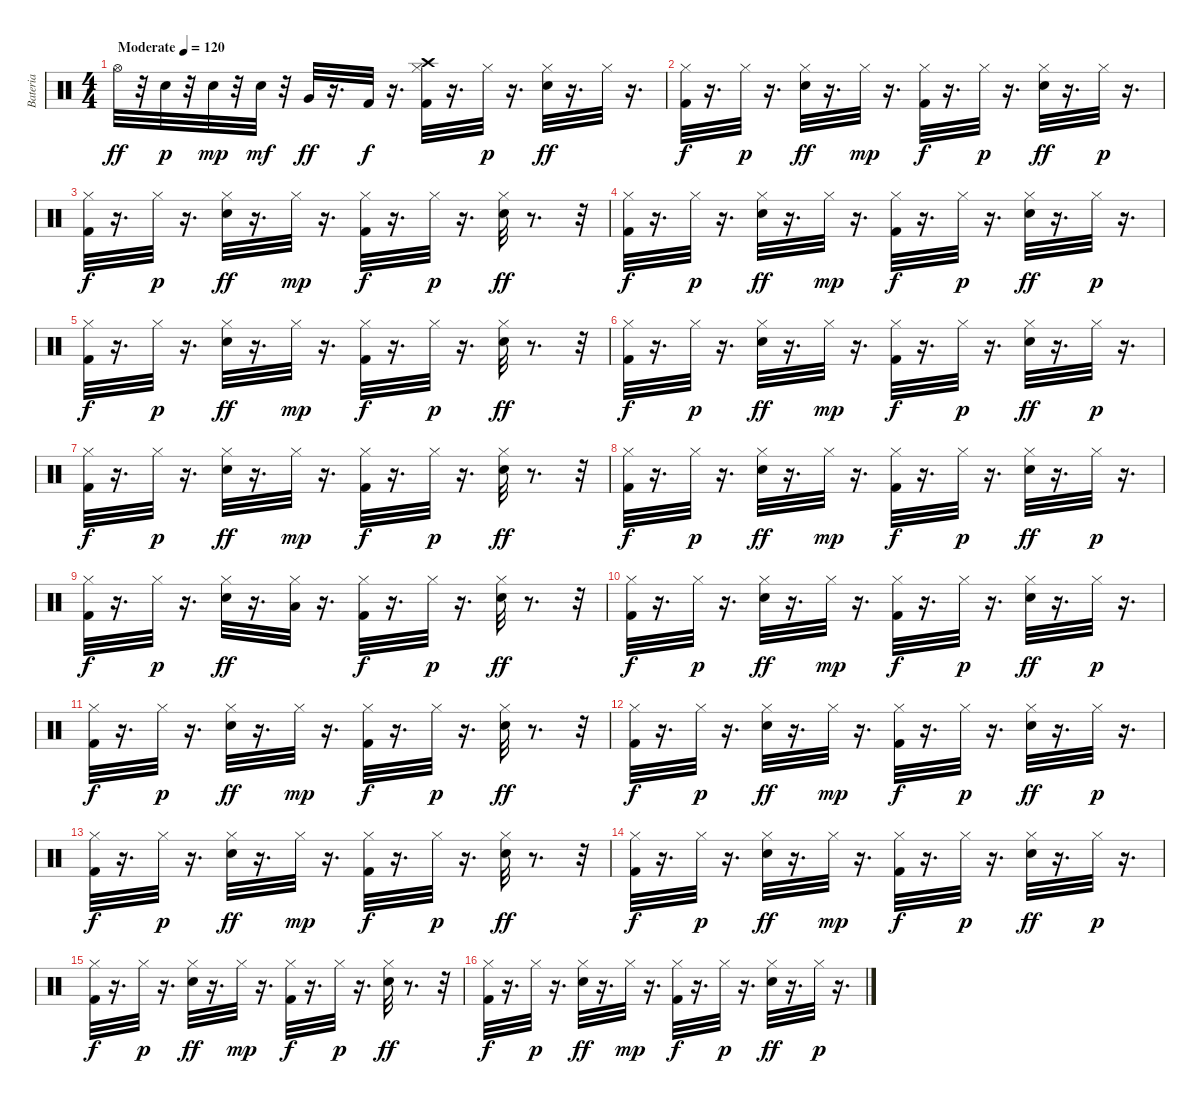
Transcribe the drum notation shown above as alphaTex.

\track ("Bateria" "Bateria") {instrument percussion}
\staff {score}
\articulation defaults
\ts (4 4)
\tempo (120 "Moderate")
\clef neutral
\ks c "Hi-Hat (open)".32{dy ff}
r.32 "Electric Snare (hit)".32{dy p} r.32 "Electric Snare (hit)".32{dy mp} r.32 "Electric Snare (hit)".32{dy mf} r.32 "Very Low Tom (hit)".32{dy ff} r.16{d} "Kick (hit) 2".32{dy f} r.16{d} ("Kick (hit) 2" "Hi-Hat (closed)" "Crash high (hit)").32 r.16{d} "Hi-Hat (closed)".32{dy p} r.16{d} ("Hi-Hat (closed)" "Electric Snare (hit)").32{dy ff} r.16{d} "Hi-Hat (closed)".32 r.16{d} |
("Kick (hit) 2" "Hi-Hat (closed)").32{dy f} r.16{d} "Hi-Hat (closed)".32{dy p} r.16{d} ("Electric Snare (hit)" "Hi-Hat (closed)").32{dy ff} r.16{d} "Hi-Hat (closed)".32{dy mp} r.16{d} ("Kick (hit) 2" "Hi-Hat (closed)").32{dy f} r.16{d} "Hi-Hat (closed)".32{dy p} r.16{d} ("Hi-Hat (closed)" "Electric Snare (hit)").32{dy ff} r.16{d} "Hi-Hat (closed)".32{dy p} r.16{d} |
("Kick (hit) 2" "Hi-Hat (closed)").32{dy f} r.16{d} "Hi-Hat (closed)".32{dy p} r.16{d} ("Electric Snare (hit)" "Hi-Hat (closed)").32{dy ff} r.16{d} "Hi-Hat (closed)".32{dy mp} r.16{d} ("Kick (hit) 2" "Hi-Hat (closed)").32{dy f} r.16{d} "Hi-Hat (closed)".32{dy p} r.16{d} ("Electric Snare (hit)" "Hi-Hat (closed)").32{dy ff} r.8{d} r.32 |
("Kick (hit) 2" "Hi-Hat (closed)").32{dy f} r.16{d} "Hi-Hat (closed)".32{dy p} r.16{d} ("Electric Snare (hit)" "Hi-Hat (closed)").32{dy ff} r.16{d} "Hi-Hat (closed)".32{dy mp} r.16{d} ("Kick (hit) 2" "Hi-Hat (closed)").32{dy f} r.16{d} "Hi-Hat (closed)".32{dy p} r.16{d} ("Hi-Hat (closed)" "Electric Snare (hit)").32{dy ff} r.16{d} "Hi-Hat (closed)".32{dy p} r.16{d} |
("Kick (hit) 2" "Hi-Hat (closed)").32{dy f} r.16{d} "Hi-Hat (closed)".32{dy p} r.16{d} ("Electric Snare (hit)" "Hi-Hat (closed)").32{dy ff} r.16{d} "Hi-Hat (closed)".32{dy mp} r.16{d} ("Kick (hit) 2" "Hi-Hat (closed)").32{dy f} r.16{d} "Hi-Hat (closed)".32{dy p} r.16{d} ("Electric Snare (hit)" "Hi-Hat (closed)").32{dy ff} r.8{d} r.32 |
("Kick (hit) 2" "Hi-Hat (closed)").32{dy f} r.16{d} "Hi-Hat (closed)".32{dy p} r.16{d} ("Electric Snare (hit)" "Hi-Hat (closed)").32{dy ff} r.16{d} "Hi-Hat (closed)".32{dy mp} r.16{d} ("Kick (hit) 2" "Hi-Hat (closed)").32{dy f} r.16{d} "Hi-Hat (closed)".32{dy p} r.16{d} ("Hi-Hat (closed)" "Electric Snare (hit)").32{dy ff} r.16{d} "Hi-Hat (closed)".32{dy p} r.16{d} |
("Kick (hit) 2" "Hi-Hat (closed)").32{dy f} r.16{d} "Hi-Hat (closed)".32{dy p} r.16{d} ("Electric Snare (hit)" "Hi-Hat (closed)").32{dy ff} r.16{d} "Hi-Hat (closed)".32{dy mp} r.16{d} ("Kick (hit) 2" "Hi-Hat (closed)").32{dy f} r.16{d} "Hi-Hat (closed)".32{dy p} r.16{d} ("Electric Snare (hit)" "Hi-Hat (closed)").32{dy ff} r.8{d} r.32 |
("Kick (hit) 2" "Hi-Hat (closed)").32{dy f} r.16{d} "Hi-Hat (closed)".32{dy p} r.16{d} ("Electric Snare (hit)" "Hi-Hat (closed)").32{dy ff} r.16{d} "Hi-Hat (closed)".32{dy mp} r.16{d} ("Kick (hit) 2" "Hi-Hat (closed)").32{dy f} r.16{d} "Hi-Hat (closed)".32{dy p} r.16{d} ("Hi-Hat (closed)" "Electric Snare (hit)").32{dy ff} r.16{d} "Hi-Hat (closed)".32{dy p} r.16{d} |
("Kick (hit) 2" "Hi-Hat (closed)").32{dy f} r.16{d} "Hi-Hat (closed)".32{dy p} r.16{d} ("Electric Snare (hit)" "Hi-Hat (closed)").32{dy ff} r.16{d} ("Hi-Hat (closed)" "Low Tom (hit)").32 r.16{d} ("Kick (hit) 2" "Hi-Hat (closed)").32{dy f} r.16{d} "Hi-Hat (closed)".32{dy p} r.16{d} ("Electric Snare (hit)" "Hi-Hat (closed)").32{dy ff} r.8{d} r.32 |
("Kick (hit) 2" "Hi-Hat (closed)").32{dy f} r.16{d} "Hi-Hat (closed)".32{dy p} r.16{d} ("Electric Snare (hit)" "Hi-Hat (closed)").32{dy ff} r.16{d} "Hi-Hat (closed)".32{dy mp} r.16{d} ("Kick (hit) 2" "Hi-Hat (closed)").32{dy f} r.16{d} "Hi-Hat (closed)".32{dy p} r.16{d} ("Hi-Hat (closed)" "Electric Snare (hit)").32{dy ff} r.16{d} "Hi-Hat (closed)".32{dy p} r.16{d} |
("Kick (hit) 2" "Hi-Hat (closed)").32{dy f} r.16{d} "Hi-Hat (closed)".32{dy p} r.16{d} ("Electric Snare (hit)" "Hi-Hat (closed)").32{dy ff} r.16{d} "Hi-Hat (closed)".32{dy mp} r.16{d} ("Kick (hit) 2" "Hi-Hat (closed)").32{dy f} r.16{d} "Hi-Hat (closed)".32{dy p} r.16{d} ("Electric Snare (hit)" "Hi-Hat (closed)").32{dy ff} r.8{d} r.32 |
("Kick (hit) 2" "Hi-Hat (closed)").32{dy f} r.16{d} "Hi-Hat (closed)".32{dy p} r.16{d} ("Electric Snare (hit)" "Hi-Hat (closed)").32{dy ff} r.16{d} "Hi-Hat (closed)".32{dy mp} r.16{d} ("Kick (hit) 2" "Hi-Hat (closed)").32{dy f} r.16{d} "Hi-Hat (closed)".32{dy p} r.16{d} ("Hi-Hat (closed)" "Electric Snare (hit)").32{dy ff} r.16{d} "Hi-Hat (closed)".32{dy p} r.16{d} |
("Kick (hit) 2" "Hi-Hat (closed)").32{dy f} r.16{d} "Hi-Hat (closed)".32{dy p} r.16{d} ("Electric Snare (hit)" "Hi-Hat (closed)").32{dy ff} r.16{d} "Hi-Hat (closed)".32{dy mp} r.16{d} ("Kick (hit) 2" "Hi-Hat (closed)").32{dy f} r.16{d} "Hi-Hat (closed)".32{dy p} r.16{d} ("Electric Snare (hit)" "Hi-Hat (closed)").32{dy ff} r.8{d} r.32 |
("Kick (hit) 2" "Hi-Hat (closed)").32{dy f} r.16{d} "Hi-Hat (closed)".32{dy p} r.16{d} ("Electric Snare (hit)" "Hi-Hat (closed)").32{dy ff} r.16{d} "Hi-Hat (closed)".32{dy mp} r.16{d} ("Kick (hit) 2" "Hi-Hat (closed)").32{dy f} r.16{d} "Hi-Hat (closed)".32{dy p} r.16{d} ("Hi-Hat (closed)" "Electric Snare (hit)").32{dy ff} r.16{d} "Hi-Hat (closed)".32{dy p} r.16{d} |
("Kick (hit) 2" "Hi-Hat (closed)").32{dy f} r.16{d} "Hi-Hat (closed)".32{dy p} r.16{d} ("Electric Snare (hit)" "Hi-Hat (closed)").32{dy ff} r.16{d} "Hi-Hat (closed)".32{dy mp} r.16{d} ("Kick (hit) 2" "Hi-Hat (closed)").32{dy f} r.16{d} "Hi-Hat (closed)".32{dy p} r.16{d} ("Electric Snare (hit)" "Hi-Hat (closed)").32{dy ff} r.8{d} r.32 |
("Kick (hit) 2" "Hi-Hat (closed)").32{dy f} r.16{d} "Hi-Hat (closed)".32{dy p} r.16{d} ("Electric Snare (hit)" "Hi-Hat (closed)").32{dy ff} r.16{d} "Hi-Hat (closed)".32{dy mp} r.16{d} ("Kick (hit) 2" "Hi-Hat (closed)").32{dy f} r.16{d} "Hi-Hat (closed)".32{dy p} r.16{d} ("Hi-Hat (closed)" "Electric Snare (hit)").32{dy ff} r.16{d} "Hi-Hat (closed)".32{dy p} r.16{d}
